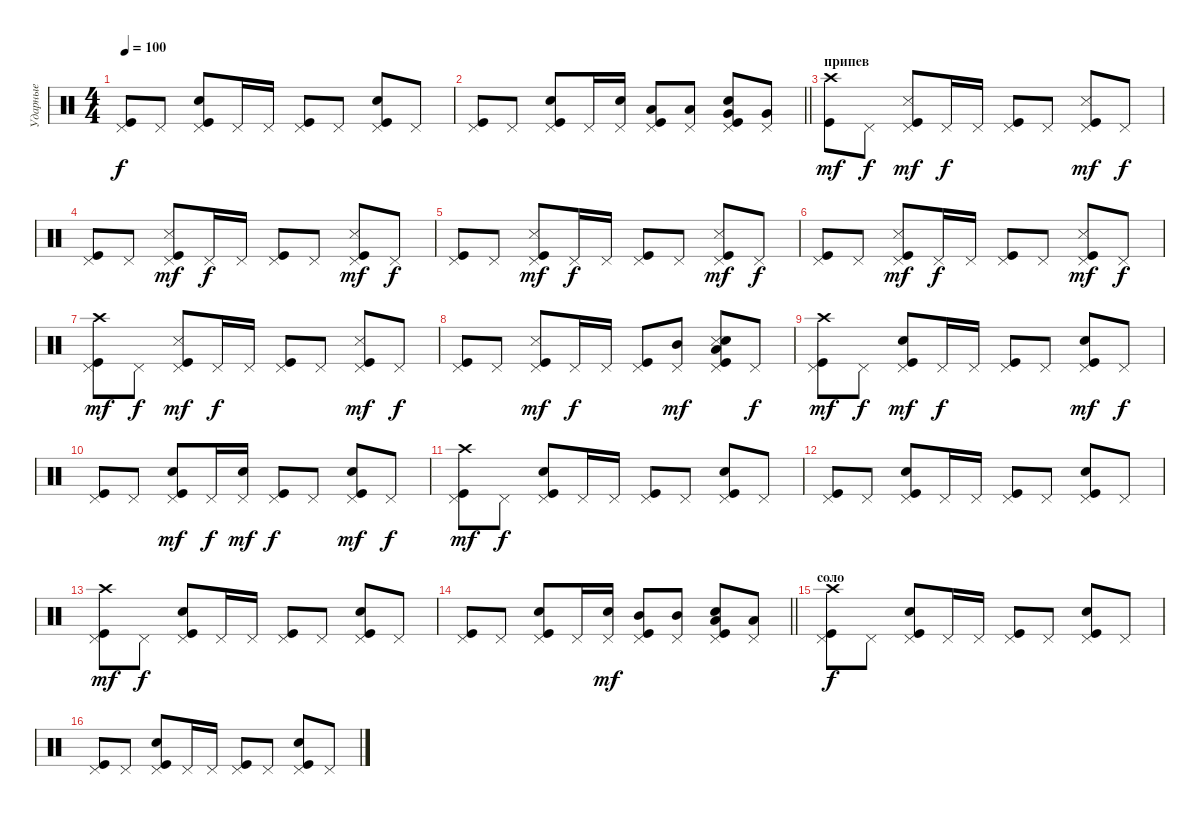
\track ("Ударные" "Ударные") {instrument percussion}
\staff {score}
\articulation defaults
\ts (4 4)
\tempo 100
\clef neutral
\ks c
("Pedal Hi-Hat (hit)" "Kick (hit)").8{dy f} "Pedal Hi-Hat (hit)".8 ("Pedal Hi-Hat (hit)" "Kick (hit)" "Snare (hit) 2").8 "Pedal Hi-Hat (hit)".16 "Pedal Hi-Hat (hit)".16 ("Pedal Hi-Hat (hit)" "Kick (hit)").8 "Pedal Hi-Hat (hit)".8 ("Pedal Hi-Hat (hit)" "Kick (hit)" "Snare (hit) 2").8 "Pedal Hi-Hat (hit)".8 |
\barLineRight lightlight
("Pedal Hi-Hat (hit)" "Kick (hit)").8 "Pedal Hi-Hat (hit)".8 ("Pedal Hi-Hat (hit)" "Kick (hit)" "Snare (hit) 2").8 "Pedal Hi-Hat (hit)".16 ("Pedal Hi-Hat (hit)" "Snare (hit) 2").16 ("Pedal Hi-Hat (hit)" "Kick (hit)" "Low Tom (hit)").8 ("Pedal Hi-Hat (hit)" "Low Tom (hit)").8 ("Pedal Hi-Hat (hit)" "Kick (hit)" "Snare (hit) 2" "Very Low Tom (hit)").8 ("Pedal Hi-Hat (hit)" "Very Low Tom (hit)").8 |
\section ("" "припев")
("Crash high (hit)" "Kick (hit)").8{dy mf} "Pedal Hi-Hat (hit)".8{dy f} ("Pedal Hi-Hat (hit)" "Kick (hit)" "Snare (side stick) 3").8{dy mf} "Pedal Hi-Hat (hit)".16{dy f} "Pedal Hi-Hat (hit)".16 ("Pedal Hi-Hat (hit)" "Kick (hit)").8 "Pedal Hi-Hat (hit)".8 ("Pedal Hi-Hat (hit)" "Kick (hit)" "Snare (side stick) 3").8{dy mf} "Pedal Hi-Hat (hit)".8{dy f} |
("Pedal Hi-Hat (hit)" "Kick (hit)").8 "Pedal Hi-Hat (hit)".8 ("Pedal Hi-Hat (hit)" "Kick (hit)" "Snare (side stick) 3").8{dy mf} "Pedal Hi-Hat (hit)".16{dy f} "Pedal Hi-Hat (hit)".16 ("Pedal Hi-Hat (hit)" "Kick (hit)").8 "Pedal Hi-Hat (hit)".8 ("Pedal Hi-Hat (hit)" "Kick (hit)" "Snare (side stick) 3").8{dy mf} "Pedal Hi-Hat (hit)".8{dy f} |
("Pedal Hi-Hat (hit)" "Kick (hit)").8 "Pedal Hi-Hat (hit)".8 ("Pedal Hi-Hat (hit)" "Kick (hit)" "Snare (side stick) 3").8{dy mf} "Pedal Hi-Hat (hit)".16{dy f} "Pedal Hi-Hat (hit)".16 ("Pedal Hi-Hat (hit)" "Kick (hit)").8 "Pedal Hi-Hat (hit)".8 ("Pedal Hi-Hat (hit)" "Kick (hit)" "Snare (side stick) 3").8{dy mf} "Pedal Hi-Hat (hit)".8{dy f} |
("Pedal Hi-Hat (hit)" "Kick (hit)").8 "Pedal Hi-Hat (hit)".8 ("Pedal Hi-Hat (hit)" "Kick (hit)" "Snare (side stick) 3").8{dy mf} "Pedal Hi-Hat (hit)".16{dy f} "Pedal Hi-Hat (hit)".16 ("Pedal Hi-Hat (hit)" "Kick (hit)").8 "Pedal Hi-Hat (hit)".8 ("Pedal Hi-Hat (hit)" "Kick (hit)" "Snare (side stick) 3").8{dy mf} "Pedal Hi-Hat (hit)".8{dy f} |
("Pedal Hi-Hat (hit)" "Kick (hit)" "Crash high (hit)").8{dy mf} "Pedal Hi-Hat (hit)".8{dy f} ("Pedal Hi-Hat (hit)" "Kick (hit)" "Snare (side stick) 3").8{dy mf} "Pedal Hi-Hat (hit)".16{dy f} "Pedal Hi-Hat (hit)".16 ("Pedal Hi-Hat (hit)" "Kick (hit)").8 "Pedal Hi-Hat (hit)".8 ("Pedal Hi-Hat (hit)" "Kick (hit)" "Snare (side stick) 3").8{dy mf} "Pedal Hi-Hat (hit)".8{dy f} |
("Pedal Hi-Hat (hit)" "Kick (hit)").8 "Pedal Hi-Hat (hit)".8 ("Pedal Hi-Hat (hit)" "Kick (hit)" "Snare (side stick) 3").8{dy mf} "Pedal Hi-Hat (hit)".16{dy f} "Pedal Hi-Hat (hit)".16 ("Pedal Hi-Hat (hit)" "Kick (hit)").8 ("Pedal Hi-Hat (hit)" "Mid Tom (hit)").8{dy mf} ("Pedal Hi-Hat (hit)" "Kick (hit)" "Snare (side stick) 3" "Snare (hit) 2" "Low Tom (hit)").8 "Pedal Hi-Hat (hit)".8{dy f} |
("Pedal Hi-Hat (hit)" "Kick (hit)" "Crash high (hit)").8{dy mf} "Pedal Hi-Hat (hit)".8{dy f} ("Pedal Hi-Hat (hit)" "Kick (hit)" "Snare (hit) 2").8{dy mf} "Pedal Hi-Hat (hit)".16{dy f} "Pedal Hi-Hat (hit)".16 ("Pedal Hi-Hat (hit)" "Kick (hit)").8 "Pedal Hi-Hat (hit)".8 ("Pedal Hi-Hat (hit)" "Kick (hit)" "Snare (hit) 2").8{dy mf} "Pedal Hi-Hat (hit)".8{dy f} |
("Pedal Hi-Hat (hit)" "Kick (hit)").8 "Pedal Hi-Hat (hit)".8 ("Pedal Hi-Hat (hit)" "Kick (hit)" "Snare (hit) 2").8{dy mf} "Pedal Hi-Hat (hit)".16{dy f} ("Pedal Hi-Hat (hit)" "Snare (hit) 2").16{dy mf} ("Pedal Hi-Hat (hit)" "Kick (hit)").8{dy f} "Pedal Hi-Hat (hit)".8 ("Pedal Hi-Hat (hit)" "Kick (hit)" "Snare (hit) 2").8{dy mf} "Pedal Hi-Hat (hit)".8{dy f} |
("Pedal Hi-Hat (hit)" "Kick (hit)" "Crash high (hit)").8{dy mf} "Pedal Hi-Hat (hit)".8{dy f} ("Pedal Hi-Hat (hit)" "Kick (hit)" "Snare (hit) 2").8 "Pedal Hi-Hat (hit)".16 "Pedal Hi-Hat (hit)".16 ("Pedal Hi-Hat (hit)" "Kick (hit)").8 "Pedal Hi-Hat (hit)".8 ("Pedal Hi-Hat (hit)" "Kick (hit)" "Snare (hit) 2").8 "Pedal Hi-Hat (hit)".8 |
("Pedal Hi-Hat (hit)" "Kick (hit)").8 "Pedal Hi-Hat (hit)".8 ("Pedal Hi-Hat (hit)" "Kick (hit)" "Snare (hit) 2").8 "Pedal Hi-Hat (hit)".16 "Pedal Hi-Hat (hit)".16 ("Pedal Hi-Hat (hit)" "Kick (hit)").8 "Pedal Hi-Hat (hit)".8 ("Pedal Hi-Hat (hit)" "Kick (hit)" "Snare (hit) 2").8 "Pedal Hi-Hat (hit)".8 |
("Pedal Hi-Hat (hit)" "Kick (hit)" "Crash high (hit)").8{dy mf} "Pedal Hi-Hat (hit)".8{dy f} ("Pedal Hi-Hat (hit)" "Kick (hit)" "Snare (hit) 2").8 "Pedal Hi-Hat (hit)".16 "Pedal Hi-Hat (hit)".16 ("Pedal Hi-Hat (hit)" "Kick (hit)").8 "Pedal Hi-Hat (hit)".8 ("Pedal Hi-Hat (hit)" "Kick (hit)" "Snare (hit) 2").8 "Pedal Hi-Hat (hit)".8 |
\barLineRight lightlight
("Pedal Hi-Hat (hit)" "Kick (hit)").8 "Pedal Hi-Hat (hit)".8 ("Pedal Hi-Hat (hit)" "Kick (hit)" "Snare (hit) 2").8 "Pedal Hi-Hat (hit)".16 ("Pedal Hi-Hat (hit)" "Snare (hit) 2").16{dy mf} ("Pedal Hi-Hat (hit)" "Kick (hit)" "Mid Tom (hit)").8 ("Pedal Hi-Hat (hit)" "Mid Tom (hit)").8 ("Pedal Hi-Hat (hit)" "Kick (hit)" "Snare (hit) 2" "Low Tom (hit)").8 ("Pedal Hi-Hat (hit)" "Low Tom (hit)").8 |
\section ("" "соло")
("Pedal Hi-Hat (hit)" "Kick (hit)" "Crash high (hit)").8{dy f} "Pedal Hi-Hat (hit)".8 ("Pedal Hi-Hat (hit)" "Kick (hit)" "Snare (hit) 2").8 "Pedal Hi-Hat (hit)".16 "Pedal Hi-Hat (hit)".16 ("Pedal Hi-Hat (hit)" "Kick (hit)").8 "Pedal Hi-Hat (hit)".8 ("Pedal Hi-Hat (hit)" "Snare (hit) 2" "Kick (hit)").8 "Pedal Hi-Hat (hit)".8 |
("Pedal Hi-Hat (hit)" "Kick (hit)").8 "Pedal Hi-Hat (hit)".8 ("Pedal Hi-Hat (hit)" "Kick (hit)" "Snare (hit) 2").8 "Pedal Hi-Hat (hit)".16 "Pedal Hi-Hat (hit)".16 ("Pedal Hi-Hat (hit)" "Kick (hit)").8 "Pedal Hi-Hat (hit)".8 ("Pedal Hi-Hat (hit)" "Kick (hit)" "Snare (hit) 2").8 "Pedal Hi-Hat (hit)".8
